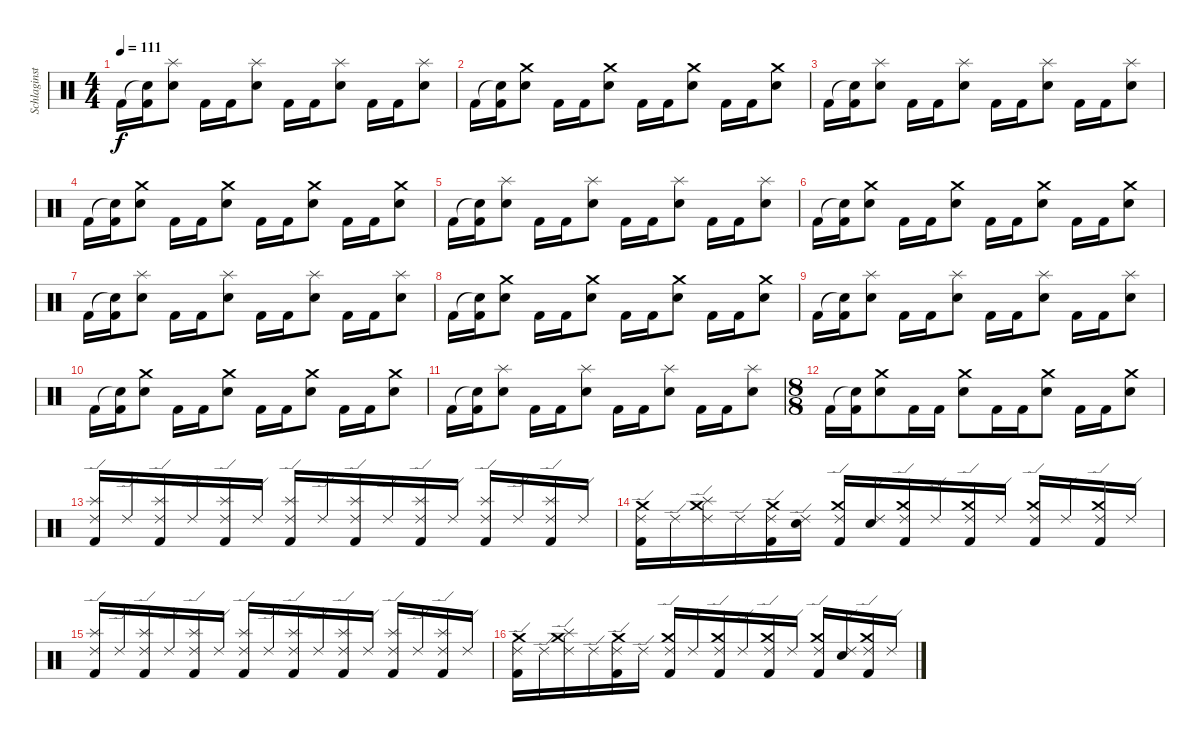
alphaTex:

\track ("Schlaginstrumente - Auswahl" "Schlaginst") {instrument percussion}
\staff {score}
\articulation defaults
\ts (4 4)
\tempo 111
\clef neutral
\ks c "Kick (hit) 2".16{dy f}
("Snare (hit)"{t} "Kick (hit) 2").16 ("Electric Snare (hit)" "Splash (hit)").8 "Kick (hit) 2".16 "Kick (hit) 2".16 ("Electric Snare (hit)" "Splash (hit)").8 "Kick (hit) 2".16 "Kick (hit) 2".16 ("Electric Snare (hit)" "Splash (hit)").8 "Kick (hit) 2".16 "Kick (hit) 2".16 ("Electric Snare (hit)" "Splash (hit)").8 |
"Kick (hit) 2".16 ("Snare (hit)"{t} "Kick (hit) 2").16 ("Electric Snare (hit)" "Crash medium (hit)").8 "Kick (hit) 2".16 "Kick (hit) 2".16 ("Electric Snare (hit)" "Crash medium (hit)").8 "Kick (hit) 2".16 "Kick (hit) 2".16 ("Electric Snare (hit)" "Crash medium (hit)").8 "Kick (hit) 2".16 "Kick (hit) 2".16 ("Electric Snare (hit)" "Crash medium (hit)").8 |
"Kick (hit) 2".16 ("Snare (hit)"{t} "Kick (hit) 2").16 ("Electric Snare (hit)" "Splash (hit)").8 "Kick (hit) 2".16 "Kick (hit) 2".16 ("Electric Snare (hit)" "Splash (hit)").8 "Kick (hit) 2".16 "Kick (hit) 2".16 ("Electric Snare (hit)" "Splash (hit)").8 "Kick (hit) 2".16 "Kick (hit) 2".16 ("Electric Snare (hit)" "Splash (hit)").8 |
"Kick (hit) 2".16 ("Snare (hit)"{t} "Kick (hit) 2").16 ("Electric Snare (hit)" "Crash medium (hit)").8 "Kick (hit) 2".16 "Kick (hit) 2".16 ("Electric Snare (hit)" "Crash medium (hit)").8 "Kick (hit) 2".16 "Kick (hit) 2".16 ("Electric Snare (hit)" "Crash medium (hit)").8 "Kick (hit) 2".16 "Kick (hit) 2".16 ("Electric Snare (hit)" "Crash medium (hit)").8 |
"Kick (hit) 2".16 ("Snare (hit)"{t} "Kick (hit) 2").16 ("Electric Snare (hit)" "Splash (hit)").8 "Kick (hit) 2".16 "Kick (hit) 2".16 ("Electric Snare (hit)" "Splash (hit)").8 "Kick (hit) 2".16 "Kick (hit) 2".16 ("Electric Snare (hit)" "Splash (hit)").8 "Kick (hit) 2".16 "Kick (hit) 2".16 ("Electric Snare (hit)" "Splash (hit)").8 |
"Kick (hit) 2".16 ("Snare (hit)"{t} "Kick (hit) 2").16 ("Electric Snare (hit)" "Crash medium (hit)").8 "Kick (hit) 2".16 "Kick (hit) 2".16 ("Electric Snare (hit)" "Crash medium (hit)").8 "Kick (hit) 2".16 "Kick (hit) 2".16 ("Electric Snare (hit)" "Crash medium (hit)").8 "Kick (hit) 2".16 "Kick (hit) 2".16 ("Electric Snare (hit)" "Crash medium (hit)").8 |
"Kick (hit) 2".16 ("Snare (hit)"{t} "Kick (hit) 2").16 ("Electric Snare (hit)" "Splash (hit)").8 "Kick (hit) 2".16 "Kick (hit) 2".16 ("Electric Snare (hit)" "Splash (hit)").8 "Kick (hit) 2".16 "Kick (hit) 2".16 ("Electric Snare (hit)" "Splash (hit)").8 "Kick (hit) 2".16 "Kick (hit) 2".16 ("Electric Snare (hit)" "Splash (hit)").8 |
"Kick (hit) 2".16 ("Snare (hit)"{t} "Kick (hit) 2").16 ("Electric Snare (hit)" "Crash medium (hit)").8 "Kick (hit) 2".16 "Kick (hit) 2".16 ("Electric Snare (hit)" "Crash medium (hit)").8 "Kick (hit) 2".16 "Kick (hit) 2".16 ("Electric Snare (hit)" "Crash medium (hit)").8 "Kick (hit) 2".16 "Kick (hit) 2".16 ("Electric Snare (hit)" "Crash medium (hit)").8 |
"Kick (hit) 2".16 ("Snare (hit)"{t} "Kick (hit) 2").16 ("Electric Snare (hit)" "Splash (hit)").8 "Kick (hit) 2".16 "Kick (hit) 2".16 ("Electric Snare (hit)" "Splash (hit)").8 "Kick (hit) 2".16 "Kick (hit) 2".16 ("Electric Snare (hit)" "Splash (hit)").8 "Kick (hit) 2".16 "Kick (hit) 2".16 ("Electric Snare (hit)" "Splash (hit)").8 |
"Kick (hit) 2".16 ("Snare (hit)"{t} "Kick (hit) 2").16 ("Electric Snare (hit)" "Crash medium (hit)").8 "Kick (hit) 2".16 "Kick (hit) 2".16 ("Electric Snare (hit)" "Crash medium (hit)").8 "Kick (hit) 2".16 "Kick (hit) 2".16 ("Electric Snare (hit)" "Crash medium (hit)").8 "Kick (hit) 2".16 "Kick (hit) 2".16 ("Electric Snare (hit)" "Crash medium (hit)").8 |
"Kick (hit) 2".16 ("Snare (hit)"{t} "Kick (hit) 2").16 ("Electric Snare (hit)" "Splash (hit)").8 "Kick (hit) 2".16 "Kick (hit) 2".16 ("Electric Snare (hit)" "Splash (hit)").8 "Kick (hit) 2".16 "Kick (hit) 2".16 ("Electric Snare (hit)" "Splash (hit)").8 "Kick (hit) 2".16 "Kick (hit) 2".16 ("Electric Snare (hit)" "Splash (hit)").8 |
\ts (8 8)
"Kick (hit) 2".16 ("Snare (hit)"{t} "Kick (hit) 2").16 ("Electric Snare (hit)" "Crash medium (hit)").8 "Kick (hit) 2".16 "Kick (hit) 2".16 ("Electric Snare (hit)" "Crash medium (hit)").8 "Kick (hit) 2".16 "Kick (hit) 2".16 ("Electric Snare (hit)" "Crash medium (hit)").8 "Kick (hit) 2".16 "Kick (hit) 2".16 ("Electric Snare (hit)" "Crash medium (hit)").8 |
("Ride (edge) 2" "Splash (hit)" "Kick (hit) 2").16 "Ride (edge) 2".16 ("Ride (edge) 2" "Kick (hit) 2" "Splash (hit)").16 "Ride (edge) 2".16 ("Ride (edge) 2" "Splash (hit)" "Kick (hit) 2").16 "Ride (edge) 2".16 ("Ride (edge) 2" "Splash (hit)" "Kick (hit) 2").16 "Ride (edge) 2".16 ("Ride (edge) 2" "Splash (hit)" "Kick (hit) 2").16 "Ride (edge) 2".16 ("Ride (edge) 2" "Splash (hit)" "Kick (hit) 2").16 "Ride (edge) 2".16 ("Ride (edge) 2" "Splash (hit)" "Kick (hit) 2").16 "Ride (edge) 2".16 ("Ride (edge) 2" "Splash (hit)" "Kick (hit) 2").16 "Ride (edge) 2".16 |
("Ride (edge) 2" "Crash medium (hit)" "Kick (hit) 2").16 "Ride (edge) 2".16 ("Ride (edge) 2" "Crash medium (hit)" "Splash (hit)").16 "Ride (edge) 2".16 ("Ride (edge) 2" "Crash medium (hit)" "Kick (hit) 2").16 ("Ride (edge) 2" "Snare (hit)").16 ("Ride (edge) 2" "Crash medium (hit)" "Kick (hit) 2").16 ("Ride (edge) 2" "Snare (hit)").16 ("Ride (edge) 2" "Crash medium (hit)" "Kick (hit) 2").16 "Ride (edge) 2".16 ("Ride (edge) 2" "Crash medium (hit)" "Kick (hit) 2").16 "Ride (edge) 2".16 ("Ride (edge) 2" "Crash medium (hit)" "Kick (hit) 2").16 "Ride (edge) 2".16 ("Ride (edge) 2" "Crash medium (hit)" "Kick (hit) 2").16 "Ride (edge) 2".16 |
("Ride (edge) 2" "Splash (hit)" "Kick (hit) 2").16 "Ride (edge) 2".16 ("Ride (edge) 2" "Kick (hit) 2" "Splash (hit)").16 "Ride (edge) 2".16 ("Ride (edge) 2" "Splash (hit)" "Kick (hit) 2").16 "Ride (edge) 2".16 ("Ride (edge) 2" "Splash (hit)" "Kick (hit) 2").16 "Ride (edge) 2".16 ("Ride (edge) 2" "Splash (hit)" "Kick (hit) 2").16 "Ride (edge) 2".16 ("Ride (edge) 2" "Splash (hit)" "Kick (hit) 2").16 "Ride (edge) 2".16 ("Ride (edge) 2" "Splash (hit)" "Kick (hit) 2").16 "Ride (edge) 2".16 ("Ride (edge) 2" "Splash (hit)" "Kick (hit) 2").16 "Ride (edge) 2".16 |
("Ride (edge) 2" "Crash medium (hit)" "Kick (hit) 2").16 "Ride (edge) 2".16 ("Ride (edge) 2" "Crash medium (hit)" "Splash (hit)").16 "Ride (edge) 2".16 ("Ride (edge) 2" "Crash medium (hit)" "Kick (hit) 2").16 "Ride (edge) 2".16 ("Ride (edge) 2" "Crash medium (hit)" "Kick (hit) 2").16 "Ride (edge) 2".16 ("Ride (edge) 2" "Crash medium (hit)" "Kick (hit) 2").16 "Ride (edge) 2".16 ("Ride (edge) 2" "Crash medium (hit)" "Kick (hit) 2").16 "Ride (edge) 2".16 ("Ride (edge) 2" "Crash medium (hit)" "Kick (hit) 2").16 ("Ride (edge) 2" "Snare (hit)").16 ("Ride (edge) 2" "Crash medium (hit)" "Kick (hit) 2").16 "Ride (edge) 2".16
